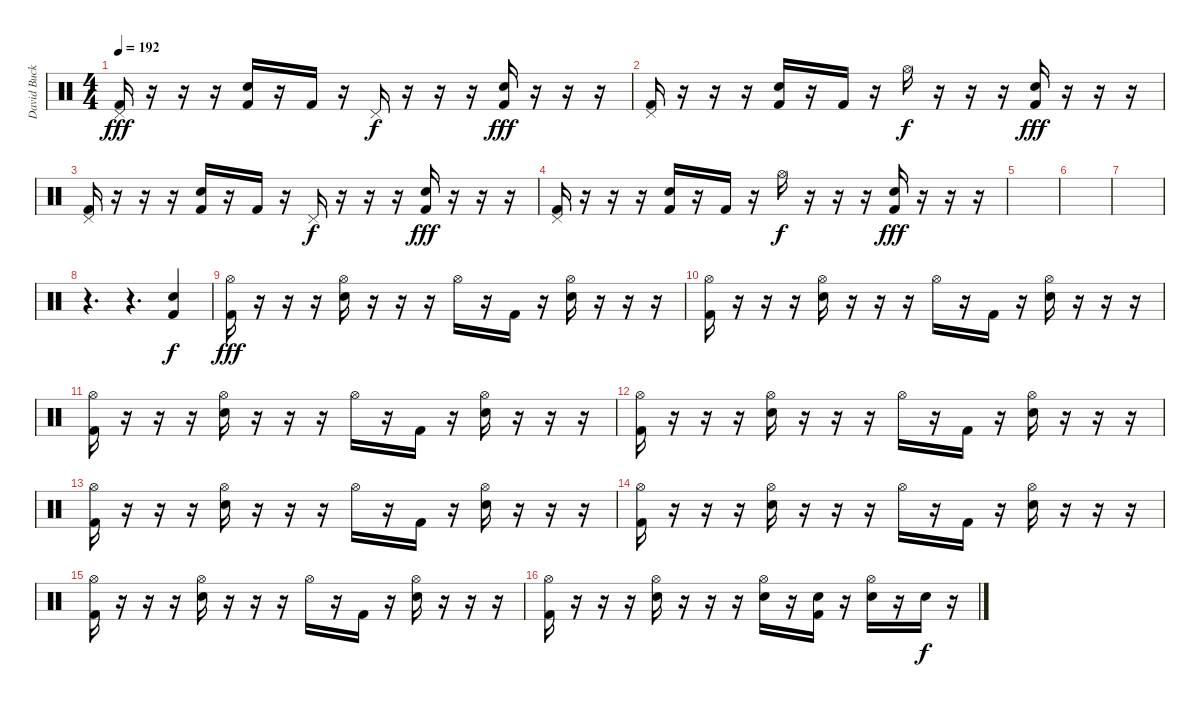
\track ("David Buckner" "David Buck") {instrument percussion}
\staff {score}
\articulation defaults
\ts (4 4)
\tempo 192
\clef neutral
\ks c
("Pedal Hi-Hat (hit)" "Kick (hit) 2").16{dy fff} r.16 r.16 r.16 ("Snare (hit) 2" "Kick (hit) 2").16 r.16 "Kick (hit) 2".16 r.16 "Pedal Hi-Hat (hit)".16{dy f} r.16 r.16 r.16 ("Snare (hit) 2" "Kick (hit) 2").16{dy fff} r.16 r.16 r.16 |
("Pedal Hi-Hat (hit)" "Kick (hit) 2").16 r.16 r.16 r.16 ("Snare (hit) 2" "Kick (hit) 2").16 r.16 "Kick (hit) 2".16 r.16 "Hi-Hat (open)".16{dy f} r.16 r.16 r.16 ("Snare (hit) 2" "Kick (hit) 2").16{dy fff} r.16 r.16 r.16 |
("Pedal Hi-Hat (hit)" "Kick (hit) 2").16 r.16 r.16 r.16 ("Snare (hit) 2" "Kick (hit) 2").16 r.16 "Kick (hit) 2".16 r.16 "Pedal Hi-Hat (hit)".16{dy f} r.16 r.16 r.16 ("Snare (hit) 2" "Kick (hit) 2").16{dy fff} r.16 r.16 r.16 |
("Pedal Hi-Hat (hit)" "Kick (hit) 2").16 r.16 r.16 r.16 ("Snare (hit) 2" "Kick (hit) 2").16 r.16 "Kick (hit) 2".16 r.16 "Hi-Hat (open)".16{dy f} r.16 r.16 r.16 ("Snare (hit) 2" "Kick (hit) 2").16{dy fff} r.16 r.16 r.16 |
|
|
|
r.4{d} r.4{d} ("Kick (hit) 2" "Electric Snare (hit)").4{dy f} |
("Hi-Hat (open)" "Kick (hit) 2").16{dy fff} r.16 r.16 r.16 ("Hi-Hat (open)" "Electric Snare (hit)").16 r.16 r.16 r.16 "Hi-Hat (open)".16 r.16 "Kick (hit) 2".16 r.16 ("Hi-Hat (open)" "Electric Snare (hit)").16 r.16 r.16 r.16 |
("Hi-Hat (open)" "Kick (hit) 2").16 r.16 r.16 r.16 ("Hi-Hat (open)" "Electric Snare (hit)").16 r.16 r.16 r.16 "Hi-Hat (open)".16 r.16 "Kick (hit) 2".16 r.16 ("Hi-Hat (open)" "Electric Snare (hit)").16 r.16 r.16 r.16 |
("Hi-Hat (open)" "Kick (hit) 2").16 r.16 r.16 r.16 ("Hi-Hat (open)" "Electric Snare (hit)").16 r.16 r.16 r.16 "Hi-Hat (open)".16 r.16 "Kick (hit) 2".16 r.16 ("Hi-Hat (open)" "Electric Snare (hit)").16 r.16 r.16 r.16 |
("Hi-Hat (open)" "Kick (hit) 2").16 r.16 r.16 r.16 ("Hi-Hat (open)" "Electric Snare (hit)").16 r.16 r.16 r.16 "Hi-Hat (open)".16 r.16 "Kick (hit) 2".16 r.16 ("Hi-Hat (open)" "Electric Snare (hit)").16 r.16 r.16 r.16 |
("Hi-Hat (open)" "Kick (hit) 2").16 r.16 r.16 r.16 ("Hi-Hat (open)" "Electric Snare (hit)").16 r.16 r.16 r.16 "Hi-Hat (open)".16 r.16 "Kick (hit) 2".16 r.16 ("Hi-Hat (open)" "Electric Snare (hit)").16 r.16 r.16 r.16 |
("Hi-Hat (open)" "Kick (hit) 2").16 r.16 r.16 r.16 ("Hi-Hat (open)" "Electric Snare (hit)").16 r.16 r.16 r.16 "Hi-Hat (open)".16 r.16 "Kick (hit) 2".16 r.16 ("Hi-Hat (open)" "Electric Snare (hit)").16 r.16 r.16 r.16 |
("Hi-Hat (open)" "Kick (hit) 2").16 r.16 r.16 r.16 ("Hi-Hat (open)" "Electric Snare (hit)").16 r.16 r.16 r.16 "Hi-Hat (open)".16 r.16 "Kick (hit) 2".16 r.16 ("Hi-Hat (open)" "Electric Snare (hit)").16 r.16 r.16 r.16 |
("Hi-Hat (open)" "Kick (hit) 2").16 r.16 r.16 r.16 ("Hi-Hat (open)" "Electric Snare (hit)").16 r.16 r.16 r.16 ("Hi-Hat (open)" "Electric Snare (hit)").16 r.16 ("Electric Snare (hit)" "Kick (hit) 2").16 r.16 ("Hi-Hat (open)" "Electric Snare (hit)").16 r.16 "Electric Snare (hit)".16{dy f} r.16
